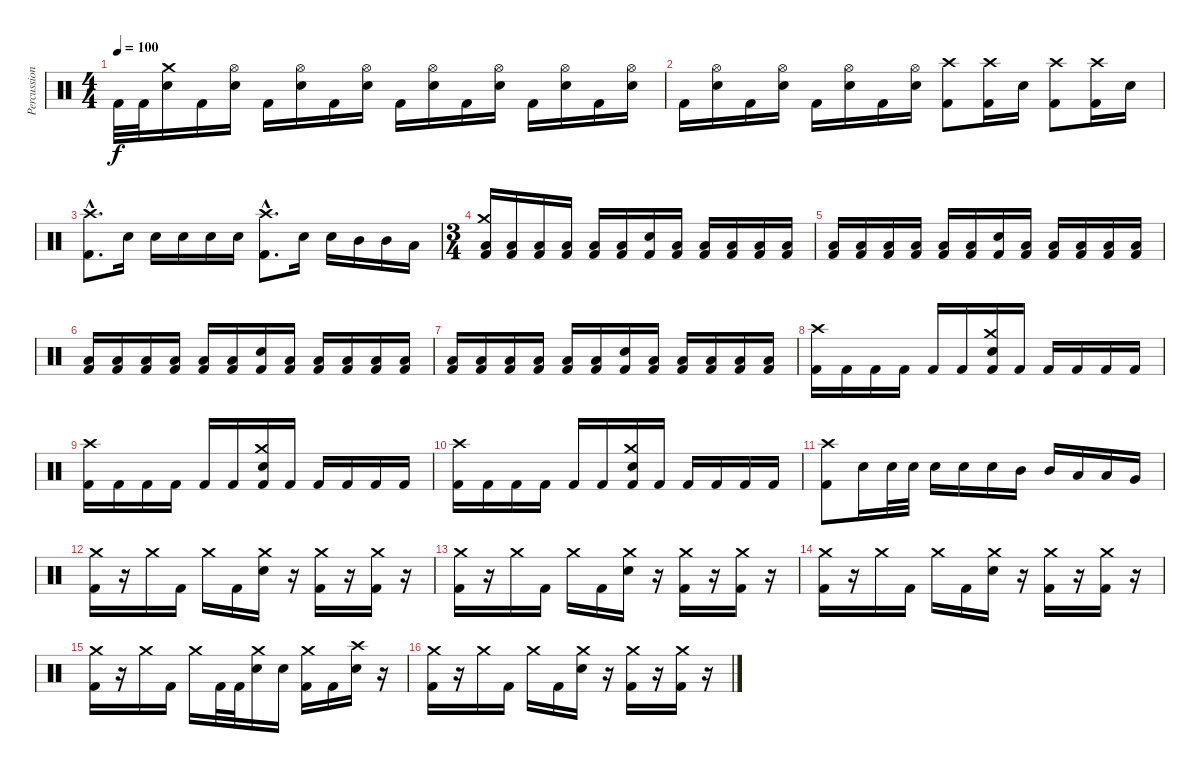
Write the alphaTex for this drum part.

\track ("Percussion" "Percussion") {instrument percussion}
\staff {score}
\articulation defaults
\ts (4 4)
\tempo 100
\clef neutral
\ks c "Kick (hit) 2".32{dy f} "Kick (hit) 2".32
("Crash medium (hit)" "Electric Snare (hit)").16 "Kick (hit) 2".16 ("Hi-Hat (open)" "Electric Snare (hit)").16 "Kick (hit) 2".16 ("Hi-Hat (open)" "Electric Snare (hit)").16 "Kick (hit) 2".16 ("Hi-Hat (open)" "Electric Snare (hit)").16 "Kick (hit) 2".16 ("Hi-Hat (open)" "Electric Snare (hit)").16 "Kick (hit) 2".16 ("Hi-Hat (open)" "Electric Snare (hit)").16 "Kick (hit) 2".16 ("Hi-Hat (open)" "Electric Snare (hit)").16 "Kick (hit) 2".16 ("Hi-Hat (open)" "Electric Snare (hit)").16 |
"Kick (hit) 2".16 ("Hi-Hat (open)" "Electric Snare (hit)").16 "Kick (hit) 2".16 ("Hi-Hat (open)" "Electric Snare (hit)").16 "Kick (hit) 2".16 ("Hi-Hat (open)" "Electric Snare (hit)").16 "Kick (hit) 2".16 ("Hi-Hat (open)" "Electric Snare (hit)").16 ("Crash high (hit)" "Kick (hit) 2").8 ("Crash high (hit)" "Kick (hit) 2").16 "Electric Snare (hit)".16 ("Crash high (hit)" "Kick (hit) 2").8 ("Crash high (hit)" "Kick (hit) 2").16 "Electric Snare (hit)".16 |
("Crash high (hit)"{hac} "Kick (hit) 2"{hac}).8{d} "Electric Snare (hit)".16 "Electric Snare (hit)".16 "Electric Snare (hit)".16 "Electric Snare (hit)".16 "Electric Snare (hit)".16 ("Crash high (hit)"{hac} "Kick (hit) 2"{hac}).8{d} "Electric Snare (hit)".16 "Electric Snare (hit)".16 "Mid Tom (hit)".16 "Mid Tom (hit)".16 "Low Tom (hit)".16 |
\ts (3 4)
("Crash medium (hit)" "Low Floor Tom (hit)" "Kick (hit) 2").16 ("Low Floor Tom (hit)" "Kick (hit) 2").16 ("Low Floor Tom (hit)" "Kick (hit) 2").16 ("Low Floor Tom (hit)" "Kick (hit) 2").16 ("Low Floor Tom (hit)" "Kick (hit) 2").16 ("Low Floor Tom (hit)" "Kick (hit) 2").16 ("Electric Snare (hit)" "Kick (hit) 2").16 ("Low Floor Tom (hit)" "Kick (hit) 2").16 ("Low Floor Tom (hit)" "Kick (hit) 2").16 ("Low Floor Tom (hit)" "Kick (hit) 2").16 ("Low Floor Tom (hit)" "Kick (hit) 2").16 ("Low Floor Tom (hit)" "Kick (hit) 2").16 |
("Low Floor Tom (hit)" "Kick (hit) 2").16 ("Low Floor Tom (hit)" "Kick (hit) 2").16 ("Low Floor Tom (hit)" "Kick (hit) 2").16 ("Low Floor Tom (hit)" "Kick (hit) 2").16 ("Low Floor Tom (hit)" "Kick (hit) 2").16 ("Low Floor Tom (hit)" "Kick (hit) 2").16 ("Electric Snare (hit)" "Kick (hit) 2").16 ("Low Floor Tom (hit)" "Kick (hit) 2").16 ("Low Floor Tom (hit)" "Kick (hit) 2").16 ("Low Floor Tom (hit)" "Kick (hit) 2").16 ("Low Floor Tom (hit)" "Kick (hit) 2").16 ("Low Floor Tom (hit)" "Kick (hit) 2").16 |
("Low Floor Tom (hit)" "Kick (hit) 2").16 ("Low Floor Tom (hit)" "Kick (hit) 2").16 ("Low Floor Tom (hit)" "Kick (hit) 2").16 ("Low Floor Tom (hit)" "Kick (hit) 2").16 ("Low Floor Tom (hit)" "Kick (hit) 2").16 ("Low Floor Tom (hit)" "Kick (hit) 2").16 ("Electric Snare (hit)" "Kick (hit) 2").16 ("Low Floor Tom (hit)" "Kick (hit) 2").16 ("Low Floor Tom (hit)" "Kick (hit) 2").16 ("Low Floor Tom (hit)" "Kick (hit) 2").16 ("Low Floor Tom (hit)" "Kick (hit) 2").16 ("Low Floor Tom (hit)" "Kick (hit) 2").16 |
("Low Floor Tom (hit)" "Kick (hit) 2").16 ("Low Floor Tom (hit)" "Kick (hit) 2").16 ("Low Floor Tom (hit)" "Kick (hit) 2").16 ("Low Floor Tom (hit)" "Kick (hit) 2").16 ("Low Floor Tom (hit)" "Kick (hit) 2").16 ("Low Floor Tom (hit)" "Kick (hit) 2").16 ("Electric Snare (hit)" "Kick (hit) 2").16 ("Low Floor Tom (hit)" "Kick (hit) 2").16 ("Low Floor Tom (hit)" "Kick (hit) 2").16 ("Low Floor Tom (hit)" "Kick (hit) 2").16 ("Low Floor Tom (hit)" "Kick (hit) 2").16 ("Low Floor Tom (hit)" "Kick (hit) 2").16 |
("Crash high (hit)" "Kick (hit) 2").16 "Kick (hit) 2".16 "Kick (hit) 2".16 "Kick (hit) 2".16 "Kick (hit) 2".16 "Kick (hit) 2".16 ("Crash medium (hit)" "Electric Snare (hit)" "Kick (hit) 2").16 "Kick (hit) 2".16 "Kick (hit) 2".16 "Kick (hit) 2".16 "Kick (hit) 2".16 "Kick (hit) 2".16 |
("Crash high (hit)" "Kick (hit) 2").16 "Kick (hit) 2".16 "Kick (hit) 2".16 "Kick (hit) 2".16 "Kick (hit) 2".16 "Kick (hit) 2".16 ("Crash medium (hit)" "Electric Snare (hit)" "Kick (hit) 2").16 "Kick (hit) 2".16 "Kick (hit) 2".16 "Kick (hit) 2".16 "Kick (hit) 2".16 "Kick (hit) 2".16 |
("Crash high (hit)" "Kick (hit) 2").16 "Kick (hit) 2".16 "Kick (hit) 2".16 "Kick (hit) 2".16 "Kick (hit) 2".16 "Kick (hit) 2".16 ("Crash medium (hit)" "Electric Snare (hit)" "Kick (hit) 2").16 "Kick (hit) 2".16 "Kick (hit) 2".16 "Kick (hit) 2".16 "Kick (hit) 2".16 "Kick (hit) 2".16 |
("Crash high (hit)" "Kick (hit) 2").8 "Electric Snare (hit)".16 "Electric Snare (hit)".32 "Electric Snare (hit)".32 "Electric Snare (hit)".16 "Electric Snare (hit)".16 "Electric Snare (hit)".16 "Mid Tom (hit)".16 "Mid Tom (hit)".16 "Low Tom (hit)".16 "Low Tom (hit)".16 "Very Low Tom (hit)".16 |
("Crash medium (hit)" "Kick (hit) 2").16 r.16 "Crash medium (hit)".16 "Kick (hit) 2".16 "Crash medium (hit)".16 "Kick (hit) 2".16 ("Crash medium (hit)" "Electric Snare (hit)").16 r.16 ("Crash medium (hit)" "Kick (hit) 2").16 r.16 ("Crash medium (hit)" "Kick (hit) 2").16 r.16 |
("Crash medium (hit)" "Kick (hit) 2").16 r.16 "Crash medium (hit)".16 "Kick (hit) 2".16 "Crash medium (hit)".16 "Kick (hit) 2".16 ("Crash medium (hit)" "Electric Snare (hit)").16 r.16 ("Crash medium (hit)" "Kick (hit) 2").16 r.16 ("Crash medium (hit)" "Kick (hit) 2").16 r.16 |
("Crash medium (hit)" "Kick (hit) 2").16 r.16 "Crash medium (hit)".16 "Kick (hit) 2".16 "Crash medium (hit)".16 "Kick (hit) 2".16 ("Crash medium (hit)" "Electric Snare (hit)").16 r.16 ("Crash medium (hit)" "Kick (hit) 2").16 r.16 ("Crash medium (hit)" "Kick (hit) 2").16 r.16 |
("Crash medium (hit)" "Kick (hit) 2").16 r.16 "Crash medium (hit)".16 "Kick (hit) 2".16 "Crash medium (hit)".16 "Kick (hit) 2".32 "Kick (hit) 2".32 ("Crash medium (hit)" "Electric Snare (hit)").16 "Electric Snare (hit)".16 ("Crash medium (hit)" "Kick (hit) 2").16 "Kick (hit) 2".16 ("Crash high (hit)" "Electric Snare (hit)").16 r.16 |
("Crash medium (hit)" "Kick (hit) 2").16 r.16 "Crash medium (hit)".16 "Kick (hit) 2".16 "Crash medium (hit)".16 "Kick (hit) 2".16 ("Crash medium (hit)" "Electric Snare (hit)").16 r.16 ("Crash medium (hit)" "Kick (hit) 2").16 r.16 ("Crash medium (hit)" "Kick (hit) 2").16 r.16
